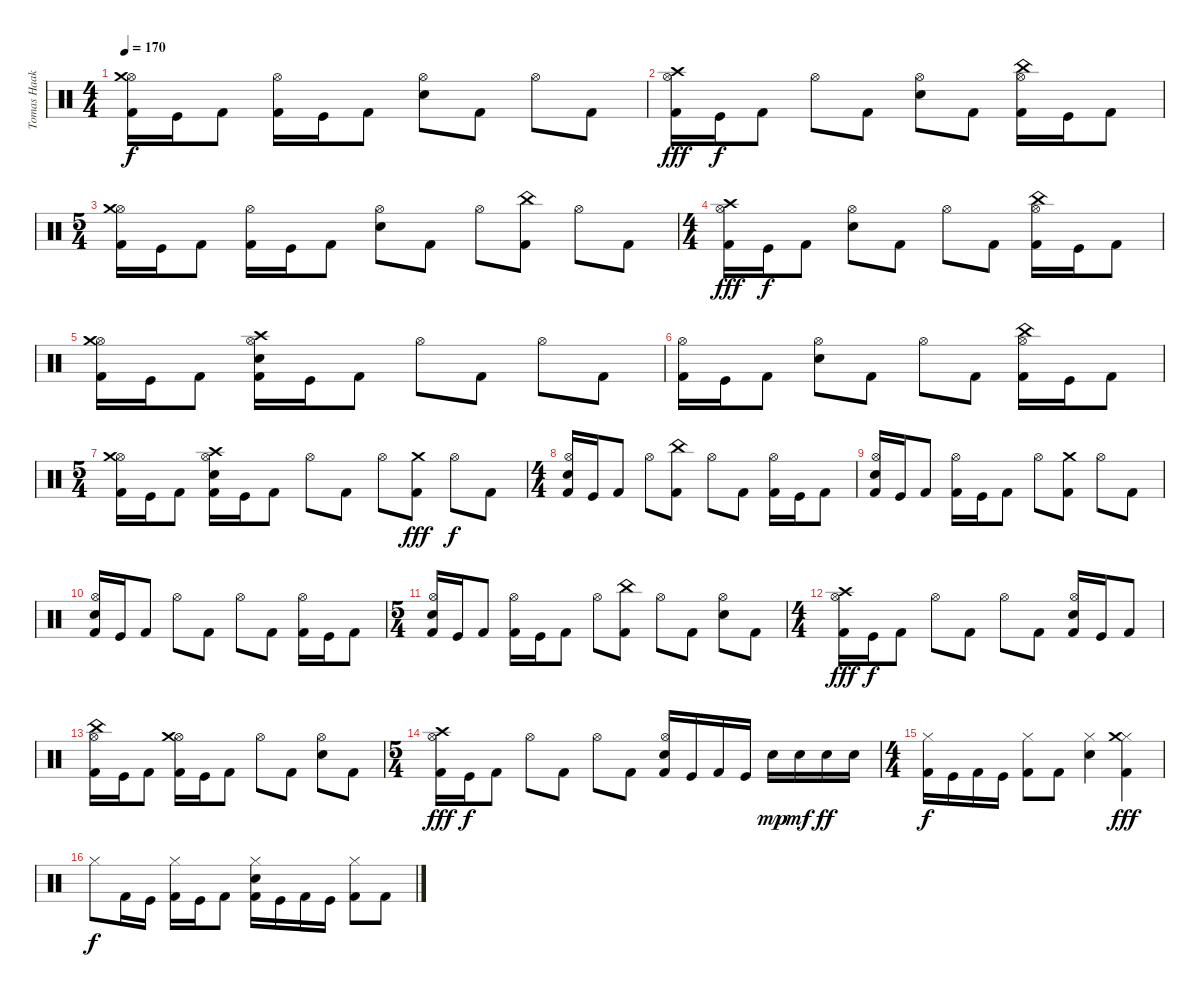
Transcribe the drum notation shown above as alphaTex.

\track ("Tomas Haake" "Tomas Haak") {instrument percussion}
\staff {score}
\articulation defaults
\ts (4 4)
\tempo 170
\clef neutral
\ks c
("Kick (hit) 2" "Hi-Hat (open)" "Crash medium (hit)").16{dy f} "Kick (hit)".16 "Kick (hit) 2".8 ("Kick (hit) 2" "Hi-Hat (open)").16 "Kick (hit)".16 "Kick (hit) 2".8 ("Snare (hit) 2" "Hi-Hat (open)").8 "Kick (hit) 2".8 "Hi-Hat (open)".8 "Kick (hit) 2".8 |
("Kick (hit) 2" "Hi-Hat (open)" "Crash high (hit)").16{dy fff} "Kick (hit)".16{dy f} "Kick (hit) 2".8 "Hi-Hat (open)".8 "Kick (hit) 2".8 ("Snare (hit) 2" "Hi-Hat (open)").8 "Kick (hit) 2".8 ("Kick (hit) 2" "Hi-Hat (open)" "China (hit)").16 "Kick (hit)".16 "Kick (hit) 2".8 |
\ts (5 4)
("Kick (hit) 2" "Hi-Hat (open)" "Crash medium (hit)").16 "Kick (hit)".16 "Kick (hit) 2".8 ("Kick (hit) 2" "Hi-Hat (open)").16 "Kick (hit)".16 "Kick (hit) 2".8 ("Snare (hit) 2" "Hi-Hat (open)").8 "Kick (hit) 2".8 "Hi-Hat (open)".8 ("Kick (hit) 2" "China (hit)").8 "Hi-Hat (open)".8 "Kick (hit) 2".8 |
\ts (4 4)
("Kick (hit) 2" "Hi-Hat (open)" "Crash high (hit)").16{dy fff} "Kick (hit)".16{dy f} "Kick (hit) 2".8 ("Snare (hit) 2" "Hi-Hat (open)").8 "Kick (hit) 2".8 "Hi-Hat (open)".8 "Kick (hit) 2".8 ("Kick (hit) 2" "Hi-Hat (open)" "China (hit)").16 "Kick (hit)".16 "Kick (hit) 2".8 |
("Kick (hit) 2" "Hi-Hat (open)" "Crash medium (hit)").16 "Kick (hit)".16 "Kick (hit) 2".8 ("Kick (hit) 2" "Snare (hit) 2" "Hi-Hat (open)" "Crash high (hit)").16 "Kick (hit)".16 "Kick (hit) 2".8 "Hi-Hat (open)".8 "Kick (hit) 2".8 "Hi-Hat (open)".8 "Kick (hit) 2".8 |
("Kick (hit) 2" "Hi-Hat (open)").16 "Kick (hit)".16 "Kick (hit) 2".8 ("Snare (hit) 2" "Hi-Hat (open)").8 "Kick (hit) 2".8 "Hi-Hat (open)".8 "Kick (hit) 2".8 ("Kick (hit) 2" "Hi-Hat (open)" "China (hit)").16 "Kick (hit)".16 "Kick (hit) 2".8 |
\ts (5 4)
("Kick (hit) 2" "Hi-Hat (open)" "Crash medium (hit)").16 "Kick (hit)".16 "Kick (hit) 2".8 ("Kick (hit) 2" "Snare (hit) 2" "Hi-Hat (open)" "Crash high (hit)").16 "Kick (hit)".16 "Kick (hit) 2".8 "Hi-Hat (open)".8 "Kick (hit) 2".8 "Hi-Hat (open)".8 ("Kick (hit) 2" "Crash medium (hit)").8{dy fff} "Hi-Hat (open)".8{dy f} "Kick (hit) 2".8 |
\ts (4 4)
("Kick (hit) 2" "Snare (hit) 2" "Hi-Hat (open)").16 "Kick (hit)".16 "Kick (hit) 2".8 "Hi-Hat (open)".8 ("Kick (hit) 2" "China (hit)").8 "Hi-Hat (open)".8 "Kick (hit) 2".8 ("Kick (hit) 2" "Hi-Hat (open)").16 "Kick (hit)".16 "Kick (hit) 2".8 |
("Kick (hit) 2" "Snare (hit) 2" "Hi-Hat (open)").16 "Kick (hit)".16 "Kick (hit) 2".8 ("Kick (hit) 2" "Hi-Hat (open)").16 "Kick (hit)".16 "Kick (hit) 2".8 "Hi-Hat (open)".8 ("Kick (hit) 2" "Crash medium (hit)").8 "Hi-Hat (open)".8 "Kick (hit) 2".8 |
("Kick (hit) 2" "Snare (hit) 2" "Hi-Hat (open)").16 "Kick (hit)".16 "Kick (hit) 2".8 "Hi-Hat (open)".8 "Kick (hit) 2".8 "Hi-Hat (open)".8 "Kick (hit) 2".8 ("Kick (hit) 2" "Hi-Hat (open)").16 "Kick (hit)".16 "Kick (hit) 2".8 |
\ts (5 4)
("Kick (hit) 2" "Snare (hit) 2" "Hi-Hat (open)").16 "Kick (hit)".16 "Kick (hit) 2".8 ("Kick (hit) 2" "Hi-Hat (open)").16 "Kick (hit)".16 "Kick (hit) 2".8 "Hi-Hat (open)".8 ("Kick (hit) 2" "China (hit)").8 "Hi-Hat (open)".8 "Kick (hit) 2".8 ("Snare (hit) 2" "Hi-Hat (open)").8 "Kick (hit) 2".8 |
\ts (4 4)
("Kick (hit) 2" "Hi-Hat (open)" "Crash high (hit)").16{dy fff} "Kick (hit)".16{dy f} "Kick (hit) 2".8 "Hi-Hat (open)".8 "Kick (hit) 2".8 "Hi-Hat (open)".8 "Kick (hit) 2".8 ("Kick (hit) 2" "Snare (hit) 2" "Hi-Hat (open)").16 "Kick (hit)".16 "Kick (hit) 2".8 |
("Kick (hit) 2" "Hi-Hat (open)" "China (hit)").16 "Kick (hit)".16 "Kick (hit) 2".8 ("Kick (hit) 2" "Hi-Hat (open)" "Crash medium (hit)").16 "Kick (hit)".16 "Kick (hit) 2".8 "Hi-Hat (open)".8 "Kick (hit) 2".8 ("Snare (hit) 2" "Hi-Hat (open)").8 "Kick (hit) 2".8 |
\ts (5 4)
("Kick (hit) 2" "Hi-Hat (open)" "Crash high (hit)").16{dy fff} "Kick (hit)".16{dy f} "Kick (hit) 2".8 "Hi-Hat (open)".8 "Kick (hit) 2".8 "Hi-Hat (open)".8 "Kick (hit) 2".8 ("Kick (hit) 2" "Snare (hit) 2" "Hi-Hat (open)").16 "Kick (hit)".16 "Kick (hit) 2".16 "Kick (hit)".16 "Snare (hit) 2".16{dy mp} "Snare (hit) 2".16{dy mf} "Snare (hit) 2".16{dy ff} "Snare (hit) 2".16 |
\ts (4 4)
("Kick (hit) 2" "Hi-Hat (closed)").16{dy f} "Kick (hit)".16 "Kick (hit) 2".16 "Kick (hit)".16 ("Kick (hit) 2" "Hi-Hat (closed)").8 "Kick (hit) 2".8 ("Snare (hit) 2" "Hi-Hat (closed)").4 ("Kick (hit) 2" "Hi-Hat (closed)" "Crash medium (hit)").4{dy fff} |
"Hi-Hat (closed)".8{dy f} "Kick (hit) 2".16 "Kick (hit)".16 ("Kick (hit) 2" "Hi-Hat (closed)").16 "Kick (hit)".16 "Kick (hit) 2".8 ("Kick (hit) 2" "Snare (hit) 2" "Hi-Hat (closed)").16 "Kick (hit)".16 "Kick (hit) 2".16 "Kick (hit)".16 ("Kick (hit) 2" "Hi-Hat (closed)").8 "Kick (hit) 2".8
